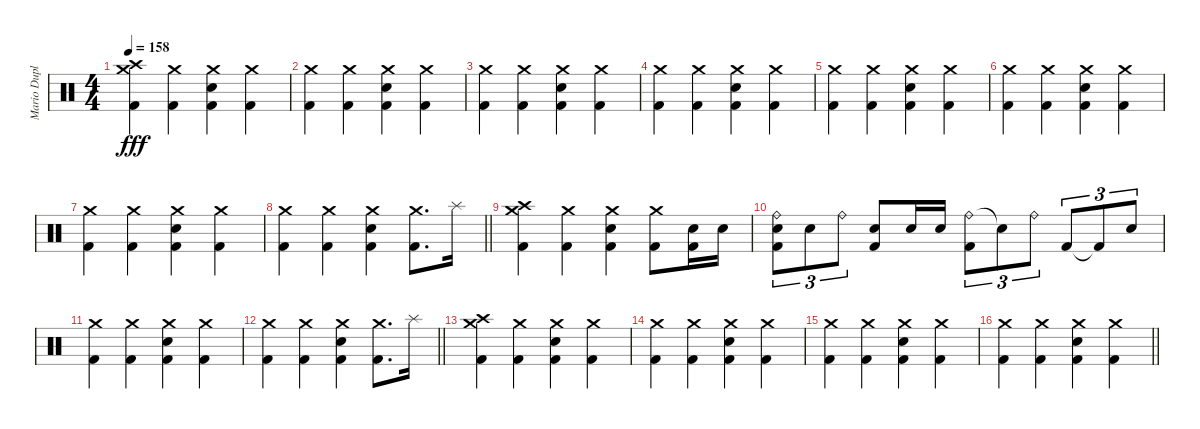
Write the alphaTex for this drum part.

\track ("Mario Duplantier" "Mario Dupl") {instrument percussion}
\staff {score}
\articulation defaults
\ts (4 4)
\section ("" "")
\tempo 158
\clef neutral
\ks c
("Crash medium (hit)" "Crash high (hit)" "Kick (hit) 2").4{dy fff} ("Crash medium (hit)" "Kick (hit) 2").4 ("Crash medium (hit)" "Electric Snare (hit)" "Kick (hit) 2").4 ("Crash medium (hit)" "Kick (hit) 2").4 |
("Crash medium (hit)" "Kick (hit) 2").4 ("Crash medium (hit)" "Kick (hit) 2").4 ("Crash medium (hit)" "Electric Snare (hit)" "Kick (hit) 2").4 ("Crash medium (hit)" "Kick (hit) 2").4 |
("Crash medium (hit)" "Kick (hit) 2").4 ("Crash medium (hit)" "Kick (hit) 2").4 ("Crash medium (hit)" "Electric Snare (hit)" "Kick (hit) 2").4 ("Crash medium (hit)" "Kick (hit) 2").4 |
("Crash medium (hit)" "Kick (hit) 2").4 ("Crash medium (hit)" "Kick (hit) 2").4 ("Crash medium (hit)" "Electric Snare (hit)" "Kick (hit) 2").4 ("Crash medium (hit)" "Kick (hit) 2").4 |
("Crash medium (hit)" "Kick (hit) 2").4 ("Crash medium (hit)" "Kick (hit) 2").4 ("Crash medium (hit)" "Electric Snare (hit)" "Kick (hit) 2").4 ("Crash medium (hit)" "Kick (hit) 2").4 |
("Crash medium (hit)" "Kick (hit) 2").4 ("Crash medium (hit)" "Kick (hit) 2").4 ("Crash medium (hit)" "Electric Snare (hit)" "Kick (hit) 2").4 ("Crash medium (hit)" "Kick (hit) 2").4 |
("Crash medium (hit)" "Kick (hit) 2").4 ("Crash medium (hit)" "Kick (hit) 2").4 ("Crash medium (hit)" "Electric Snare (hit)" "Kick (hit) 2").4 ("Crash medium (hit)" "Kick (hit) 2").4 |
\barLineRight lightlight
("Crash medium (hit)" "Kick (hit) 2").4 ("Crash medium (hit)" "Kick (hit) 2").4 ("Crash medium (hit)" "Electric Snare (hit)" "Kick (hit) 2").4 ("Crash medium (hit)" "Kick (hit) 2").8{d} "Splash (hit)".16 |
\section ("" "")
("Crash medium (hit)" "Crash high (hit)" "Kick (hit) 2").4 ("Crash medium (hit)" "Kick (hit) 2").4 ("Crash medium (hit)" "Electric Snare (hit)" "Kick (hit) 2").4 ("Crash medium (hit)" "Kick (hit) 2").8 ("Electric Snare (hit)" "Kick (hit) 2").16 "Electric Snare (hit)".16 |
("Ride (bell)" "Electric Snare (hit)" "Kick (hit) 2").8{tu (3 2)} "Electric Snare (hit)".8{tu (3 2)} "Ride (bell)".8{tu (3 2)} ("Electric Snare (hit)" "Kick (hit) 2").8 "Electric Snare (hit)".16 "Electric Snare (hit)".16 ("Ride (bell)" "Kick (hit) 2").8{tu (3 2)} "Snare (hit)"{t}.8{tu (3 2)} "Ride (bell)".8{tu (3 2)} "Kick (hit) 2".8{tu (3 2)} "Kick (hit) 2"{t}.8{tu (3 2)} "Electric Snare (hit)".8{tu (3 2)} |
("Crash medium (hit)" "Kick (hit) 2").4 ("Crash medium (hit)" "Kick (hit) 2").4 ("Crash medium (hit)" "Electric Snare (hit)" "Kick (hit) 2").4 ("Crash medium (hit)" "Kick (hit) 2").4 |
\barLineRight lightlight
("Crash medium (hit)" "Kick (hit) 2").4 ("Crash medium (hit)" "Kick (hit) 2").4 ("Crash medium (hit)" "Electric Snare (hit)" "Kick (hit) 2").4 ("Crash medium (hit)" "Kick (hit) 2").8{d} "Splash (hit)".16 |
("Crash medium (hit)" "Crash high (hit)" "Kick (hit) 2").4 ("Crash medium (hit)" "Kick (hit) 2").4 ("Crash medium (hit)" "Electric Snare (hit)" "Kick (hit) 2").4 ("Crash medium (hit)" "Kick (hit) 2").4 |
("Crash medium (hit)" "Kick (hit) 2").4 ("Crash medium (hit)" "Kick (hit) 2").4 ("Crash medium (hit)" "Electric Snare (hit)" "Kick (hit) 2").4 ("Crash medium (hit)" "Kick (hit) 2").4 |
("Crash medium (hit)" "Kick (hit) 2").4 ("Crash medium (hit)" "Kick (hit) 2").4 ("Crash medium (hit)" "Electric Snare (hit)" "Kick (hit) 2").4 ("Crash medium (hit)" "Kick (hit) 2").4 |
\barLineRight lightlight
("Crash medium (hit)" "Kick (hit) 2").4 ("Crash medium (hit)" "Kick (hit) 2").4 ("Crash medium (hit)" "Electric Snare (hit)" "Kick (hit) 2").4 ("Crash medium (hit)" "Kick (hit) 2").4
